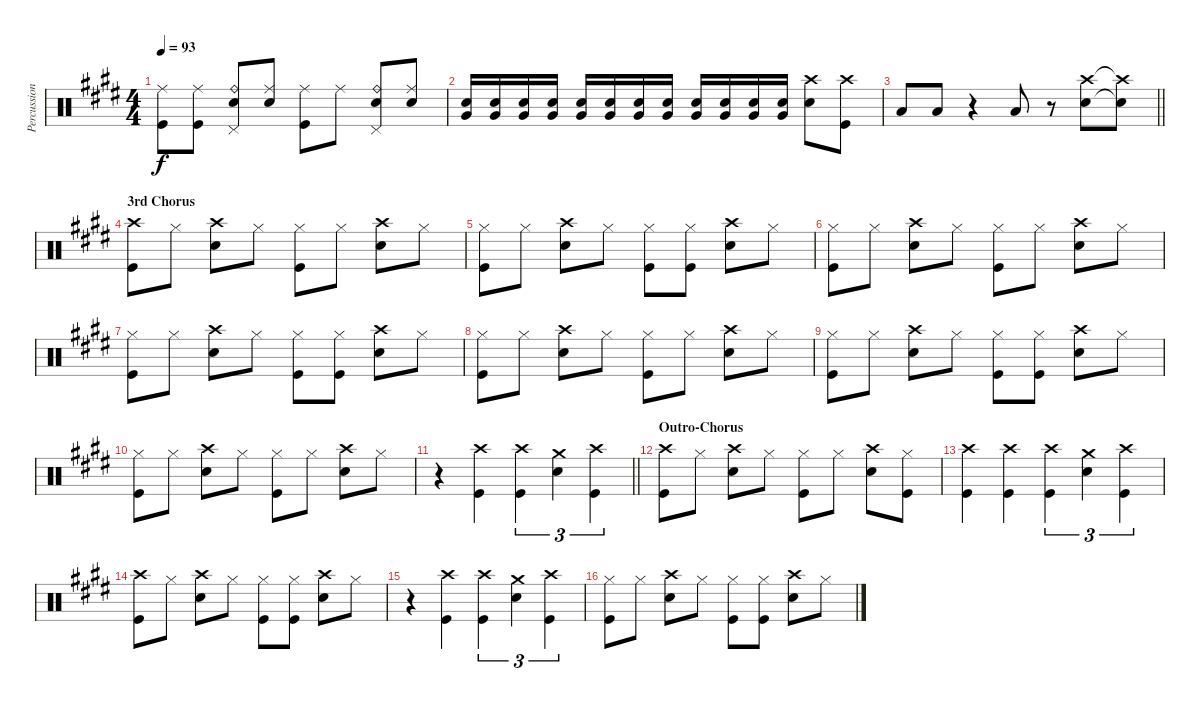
\track ("Percussion" "Percussion") {instrument percussion}
\staff {score}
\articulation defaults
\ts (4 4)
\tempo 93
\clef neutral
\ks c#minor
("Ride (middle)" "Kick (hit)").8{dy f} ("Ride (middle)" "Kick (hit)").8 ("Ride (bell)" "Snare (hit) 2" "Pedal Hi-Hat (hit)").8 ("Ride (middle)" "Snare (hit) 2").8 ("Ride (middle)" "Kick (hit)").8 "Ride (middle)".8 ("Ride (bell)" "Snare (hit) 2" "Pedal Hi-Hat (hit)").8 ("Ride (middle)" "Snare (hit) 2").8 |
("Snare (hit) 2" "Very Low Tom (hit)").16 ("Very Low Tom (hit)" "Snare (hit) 2").16 ("Very Low Tom (hit)" "Snare (hit) 2").16 ("Very Low Tom (hit)" "Snare (hit) 2").16 ("Very Low Tom (hit)" "Snare (hit) 2").16 ("Very Low Tom (hit)" "Snare (hit) 2").16 ("Very Low Tom (hit)" "Snare (hit) 2").16 ("Very Low Tom (hit)" "Snare (hit) 2").16 ("Very Low Tom (hit)" "Snare (hit) 2").16 ("Very Low Tom (hit)" "Snare (hit) 2").16 ("Very Low Tom (hit)" "Snare (hit) 2").16 ("Very Low Tom (hit)" "Snare (hit) 2").16 ("Snare (hit) 2" "Crash high (hit)").8 ("Kick (hit)" "Crash high (hit)").8 |
\barLineRight lightlight "Low Floor Tom (hit)".8 "Low Floor Tom (hit)".8
r.4 "Low Floor Tom (hit)".8 r.8 ("Snare (hit) 2" "Crash high (hit)").8 ("Snare (hit) 2"{t} "Crash high (hit)"{t}).8 |
\section ("" "3rd Chorus")
("Crash high (hit)" "Kick (hit)").8 "Hi-Hat (closed)".8 ("Crash high (hit)" "Snare (hit) 2").8 "Hi-Hat (closed)".8 ("Hi-Hat (closed)" "Kick (hit)").8 "Hi-Hat (closed)".8 ("Crash high (hit)" "Snare (hit) 2").8 "Hi-Hat (closed)".8 |
("Hi-Hat (closed)" "Kick (hit)").8 "Hi-Hat (closed)".8 ("Crash high (hit)" "Snare (hit) 2").8 "Hi-Hat (closed)".8 ("Hi-Hat (closed)" "Kick (hit)").8 ("Hi-Hat (closed)" "Kick (hit)").8 ("Crash high (hit)" "Snare (hit) 2").8 "Hi-Hat (closed)".8 |
("Hi-Hat (closed)" "Kick (hit)").8 "Hi-Hat (closed)".8 ("Crash high (hit)" "Snare (hit) 2").8 "Hi-Hat (closed)".8 ("Hi-Hat (closed)" "Kick (hit)").8 "Hi-Hat (closed)".8 ("Crash high (hit)" "Snare (hit) 2").8 "Hi-Hat (closed)".8 |
("Hi-Hat (closed)" "Kick (hit)").8 "Hi-Hat (closed)".8 ("Crash high (hit)" "Snare (hit) 2").8 "Hi-Hat (closed)".8 ("Hi-Hat (closed)" "Kick (hit)").8 ("Hi-Hat (closed)" "Kick (hit)").8 ("Crash high (hit)" "Snare (hit) 2").8 "Hi-Hat (closed)".8 |
("Hi-Hat (closed)" "Kick (hit)").8 "Hi-Hat (closed)".8 ("Crash high (hit)" "Snare (hit) 2").8 "Hi-Hat (closed)".8 ("Hi-Hat (closed)" "Kick (hit)").8 "Hi-Hat (closed)".8 ("Crash high (hit)" "Snare (hit) 2").8 "Hi-Hat (closed)".8 |
("Hi-Hat (closed)" "Kick (hit)").8 "Hi-Hat (closed)".8 ("Crash high (hit)" "Snare (hit) 2").8 "Hi-Hat (closed)".8 ("Hi-Hat (closed)" "Kick (hit)").8 ("Hi-Hat (closed)" "Kick (hit)").8 ("Crash high (hit)" "Snare (hit) 2").8 "Hi-Hat (closed)".8 |
("Hi-Hat (closed)" "Kick (hit)").8 "Hi-Hat (closed)".8 ("Crash high (hit)" "Snare (hit) 2").8 "Hi-Hat (closed)".8 ("Hi-Hat (closed)" "Kick (hit)").8 "Hi-Hat (closed)".8 ("Crash high (hit)" "Snare (hit) 2").8 "Hi-Hat (closed)".8 |
\barLineRight lightlight
r.4 ("Kick (hit)" "Crash high (hit)").4 ("Kick (hit)" "Crash high (hit)").4{tu (3 2)} ("Snare (hit) 2" "Crash medium (hit)").4{tu (3 2)} ("Kick (hit)" "Crash high (hit)").4{tu (3 2)} |
\section ("" "Outro-Chorus")
("Crash high (hit)" "Kick (hit)").8 "Hi-Hat (closed)".8 ("Crash high (hit)" "Snare (hit) 2").8 "Hi-Hat (closed)".8 ("Hi-Hat (closed)" "Kick (hit)").8 "Hi-Hat (closed)".8 ("Crash high (hit)" "Snare (hit) 2").8 ("Hi-Hat (closed)" "Kick (hit)").8 |
("Kick (hit)" "Crash high (hit)").4 ("Kick (hit)" "Crash high (hit)").4 ("Kick (hit)" "Crash high (hit)").4{tu (3 2)} ("Snare (hit) 2" "Crash medium (hit)").4{tu (3 2)} ("Kick (hit)" "Crash high (hit)").4{tu (3 2)} |
("Crash high (hit)" "Kick (hit)").8 "Hi-Hat (closed)".8 ("Crash high (hit)" "Snare (hit) 2").8 "Hi-Hat (closed)".8 ("Hi-Hat (closed)" "Kick (hit)").8 ("Hi-Hat (closed)" "Kick (hit)").8 ("Crash high (hit)" "Snare (hit) 2").8 "Hi-Hat (closed)".8 |
r.4 ("Kick (hit)" "Crash high (hit)").4 ("Kick (hit)" "Crash high (hit)").4{tu (3 2)} ("Snare (hit) 2" "Crash medium (hit)").4{tu (3 2)} ("Kick (hit)" "Crash high (hit)").4{tu (3 2)} |
("Hi-Hat (closed)" "Kick (hit)").8 "Hi-Hat (closed)".8 ("Crash high (hit)" "Snare (hit) 2").8 "Hi-Hat (closed)".8 ("Hi-Hat (closed)" "Kick (hit)").8 ("Hi-Hat (closed)" "Kick (hit)").8 ("Crash high (hit)" "Snare (hit) 2").8 "Hi-Hat (closed)".8
